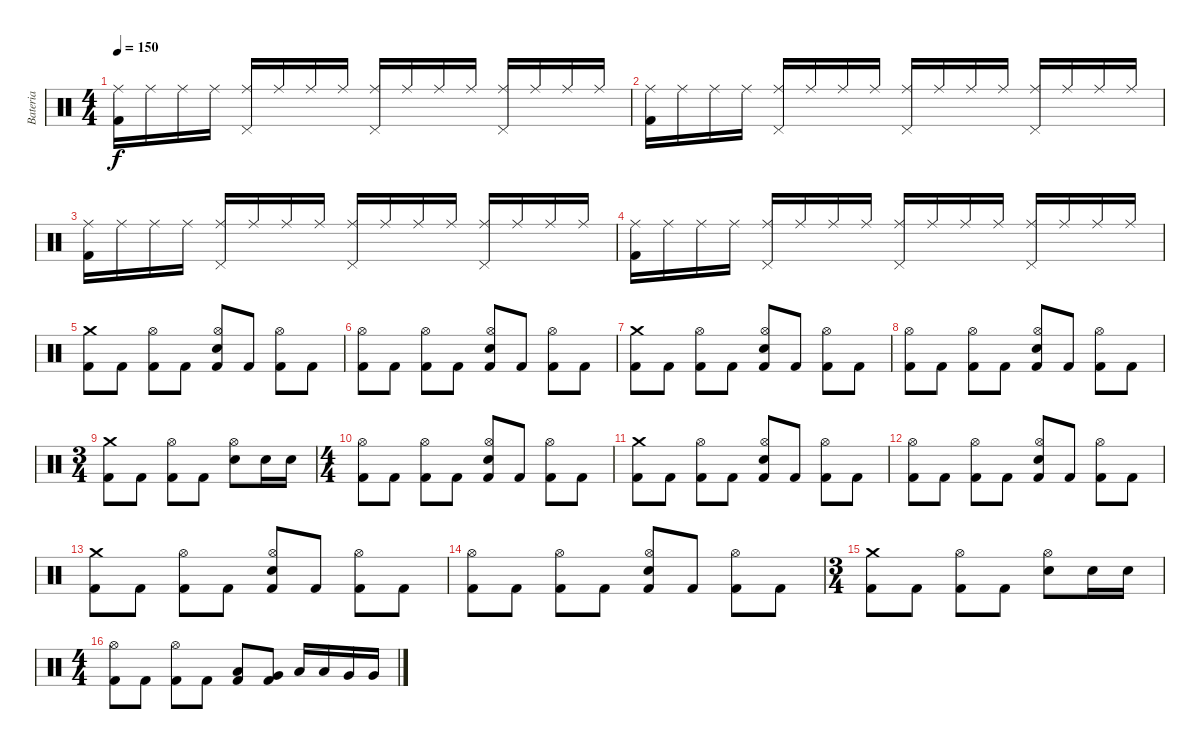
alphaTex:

\track ("Bateria" "Bateria") {instrument percussion}
\staff {score}
\articulation defaults
\ts (4 4)
\tempo 150
\clef neutral
\ks c
("Ride (middle)" "Kick (hit) 2").16{dy f} "Ride (middle)".16 "Ride (middle)".16 "Ride (middle)".16 ("Ride (middle)" "Pedal Hi-Hat (hit)").16 "Ride (middle)".16 "Ride (middle)".16 "Ride (middle)".16 ("Ride (middle)" "Pedal Hi-Hat (hit)").16 "Ride (middle)".16 "Ride (middle)".16 "Ride (middle)".16 ("Ride (middle)" "Pedal Hi-Hat (hit)").16 "Ride (middle)".16 "Ride (middle)".16 "Ride (middle)".16 |
("Ride (middle)" "Kick (hit) 2").16 "Ride (middle)".16 "Ride (middle)".16 "Ride (middle)".16 ("Ride (middle)" "Pedal Hi-Hat (hit)").16 "Ride (middle)".16 "Ride (middle)".16 "Ride (middle)".16 ("Ride (middle)" "Pedal Hi-Hat (hit)").16 "Ride (middle)".16 "Ride (middle)".16 "Ride (middle)".16 ("Ride (middle)" "Pedal Hi-Hat (hit)").16 "Ride (middle)".16 "Ride (middle)".16 "Ride (middle)".16 |
("Ride (middle)" "Kick (hit) 2").16 "Ride (middle)".16 "Ride (middle)".16 "Ride (middle)".16 ("Ride (middle)" "Pedal Hi-Hat (hit)").16 "Ride (middle)".16 "Ride (middle)".16 "Ride (middle)".16 ("Ride (middle)" "Pedal Hi-Hat (hit)").16 "Ride (middle)".16 "Ride (middle)".16 "Ride (middle)".16 ("Ride (middle)" "Pedal Hi-Hat (hit)").16 "Ride (middle)".16 "Ride (middle)".16 "Ride (middle)".16 |
("Ride (middle)" "Kick (hit) 2").16 "Ride (middle)".16 "Ride (middle)".16 "Ride (middle)".16 ("Ride (middle)" "Pedal Hi-Hat (hit)").16 "Ride (middle)".16 "Ride (middle)".16 "Ride (middle)".16 ("Ride (middle)" "Pedal Hi-Hat (hit)").16 "Ride (middle)".16 "Ride (middle)".16 "Ride (middle)".16 ("Ride (middle)" "Pedal Hi-Hat (hit)").16 "Ride (middle)".16 "Ride (middle)".16 "Ride (middle)".16 |
("Crash medium (hit)" "Kick (hit) 2").8 "Kick (hit) 2".8 ("Hi-Hat (open)" "Kick (hit) 2").8 "Kick (hit) 2".8 ("Hi-Hat (open)" "Snare (hit) 2" "Kick (hit) 2").8 "Kick (hit) 2".8 ("Hi-Hat (open)" "Kick (hit) 2").8 "Kick (hit) 2".8 |
("Hi-Hat (open)" "Kick (hit) 2").8 "Kick (hit) 2".8 ("Hi-Hat (open)" "Kick (hit) 2").8 "Kick (hit) 2".8 ("Hi-Hat (open)" "Snare (hit) 2" "Kick (hit) 2").8 "Kick (hit) 2".8 ("Hi-Hat (open)" "Kick (hit) 2").8 "Kick (hit) 2".8 |
("Crash medium (hit)" "Kick (hit) 2").8 "Kick (hit) 2".8 ("Hi-Hat (open)" "Kick (hit) 2").8 "Kick (hit) 2".8 ("Hi-Hat (open)" "Snare (hit) 2" "Kick (hit) 2").8 "Kick (hit) 2".8 ("Hi-Hat (open)" "Kick (hit) 2").8 "Kick (hit) 2".8 |
("Hi-Hat (open)" "Kick (hit) 2").8 "Kick (hit) 2".8 ("Hi-Hat (open)" "Kick (hit) 2").8 "Kick (hit) 2".8 ("Hi-Hat (open)" "Snare (hit) 2" "Kick (hit) 2").8 "Kick (hit) 2".8 ("Hi-Hat (open)" "Kick (hit) 2").8 "Kick (hit) 2".8 |
\ts (3 4)
("Crash medium (hit)" "Kick (hit) 2").8 "Kick (hit) 2".8 ("Hi-Hat (open)" "Kick (hit) 2").8 "Kick (hit) 2".8 ("Hi-Hat (open)" "Snare (hit) 2").8 "Snare (hit) 2".16 "Snare (hit) 2".16 |
\ts (4 4)
("Hi-Hat (open)" "Kick (hit) 2").8 "Kick (hit) 2".8 ("Hi-Hat (open)" "Kick (hit) 2").8 "Kick (hit) 2".8 ("Hi-Hat (open)" "Snare (hit) 2" "Kick (hit) 2").8 "Kick (hit) 2".8 ("Hi-Hat (open)" "Kick (hit) 2").8 "Kick (hit) 2".8 |
("Crash medium (hit)" "Kick (hit) 2").8 "Kick (hit) 2".8 ("Hi-Hat (open)" "Kick (hit) 2").8 "Kick (hit) 2".8 ("Hi-Hat (open)" "Snare (hit) 2" "Kick (hit) 2").8 "Kick (hit) 2".8 ("Hi-Hat (open)" "Kick (hit) 2").8 "Kick (hit) 2".8 |
("Hi-Hat (open)" "Kick (hit) 2").8 "Kick (hit) 2".8 ("Hi-Hat (open)" "Kick (hit) 2").8 "Kick (hit) 2".8 ("Hi-Hat (open)" "Snare (hit) 2" "Kick (hit) 2").8 "Kick (hit) 2".8 ("Hi-Hat (open)" "Kick (hit) 2").8 "Kick (hit) 2".8 |
("Crash medium (hit)" "Kick (hit) 2").8 "Kick (hit) 2".8 ("Hi-Hat (open)" "Kick (hit) 2").8 "Kick (hit) 2".8 ("Hi-Hat (open)" "Snare (hit) 2" "Kick (hit) 2").8 "Kick (hit) 2".8 ("Hi-Hat (open)" "Kick (hit) 2").8 "Kick (hit) 2".8 |
("Hi-Hat (open)" "Kick (hit) 2").8 "Kick (hit) 2".8 ("Hi-Hat (open)" "Kick (hit) 2").8 "Kick (hit) 2".8 ("Hi-Hat (open)" "Snare (hit) 2" "Kick (hit) 2").8 "Kick (hit) 2".8 ("Hi-Hat (open)" "Kick (hit) 2").8 "Kick (hit) 2".8 |
\ts (3 4)
("Crash medium (hit)" "Kick (hit) 2").8 "Kick (hit) 2".8 ("Hi-Hat (open)" "Kick (hit) 2").8 "Kick (hit) 2".8 ("Hi-Hat (open)" "Snare (hit) 2").8 "Snare (hit) 2".16 "Snare (hit) 2".16 |
\ts (4 4)
("Hi-Hat (open)" "Kick (hit) 2").8 "Kick (hit) 2".8 ("Hi-Hat (open)" "Kick (hit) 2").8 "Kick (hit) 2".8 ("Low Tom (hit)" "Kick (hit) 2").8 ("Very Low Tom (hit)" "Kick (hit) 2").8 "Low Tom (hit)".16 "Low Tom (hit)".16 "Very Low Tom (hit)".16 "Very Low Tom (hit)".16
